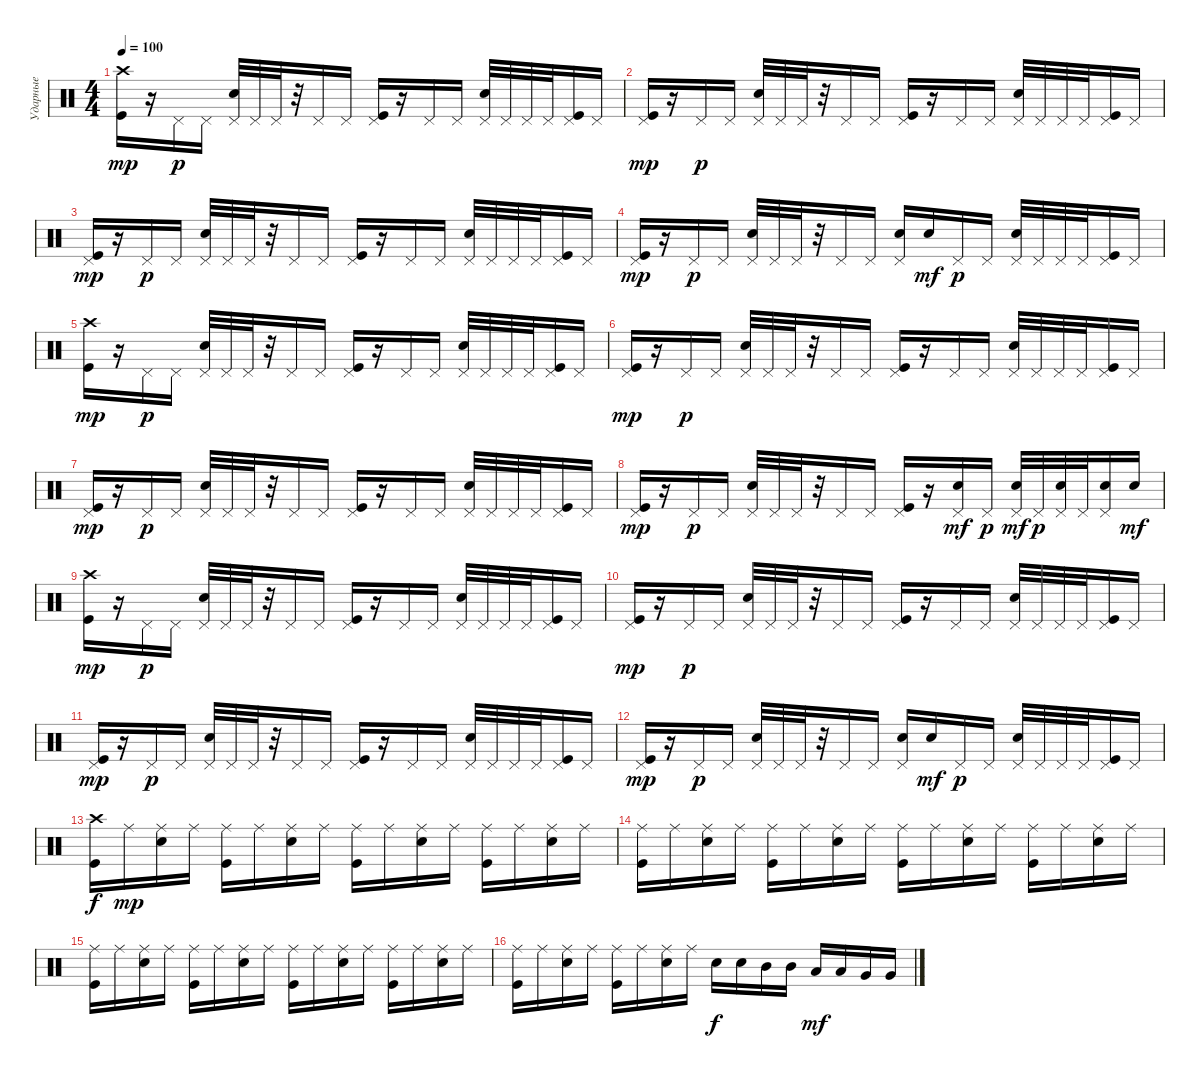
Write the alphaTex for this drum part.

\track ("Ударные" "Ударные") {instrument percussion}
\staff {score}
\articulation defaults
\ts (4 4)
\tempo 100
\clef neutral
\ks c
("Crash high (hit)" "Kick (hit)").16{dy mp} r.16 "Pedal Hi-Hat (hit)".16{dy p} "Pedal Hi-Hat (hit)".16 ("Pedal Hi-Hat (hit)" "Snare (hit) 2").32 "Pedal Hi-Hat (hit)".32 "Pedal Hi-Hat (hit)".32 r.32 "Pedal Hi-Hat (hit)".16 "Pedal Hi-Hat (hit)".16 ("Pedal Hi-Hat (hit)" "Kick (hit)").16 r.16 "Pedal Hi-Hat (hit)".16 "Pedal Hi-Hat (hit)".16 ("Pedal Hi-Hat (hit)" "Snare (hit) 2").32 "Pedal Hi-Hat (hit)".32 "Pedal Hi-Hat (hit)".32 "Pedal Hi-Hat (hit)".32 ("Pedal Hi-Hat (hit)" "Kick (hit)").16 "Pedal Hi-Hat (hit)".16 |
("Pedal Hi-Hat (hit)" "Kick (hit)").16{dy mp} r.16 "Pedal Hi-Hat (hit)".16{dy p} "Pedal Hi-Hat (hit)".16 ("Pedal Hi-Hat (hit)" "Snare (hit) 2").32 "Pedal Hi-Hat (hit)".32 "Pedal Hi-Hat (hit)".32 r.32 "Pedal Hi-Hat (hit)".16 "Pedal Hi-Hat (hit)".16 ("Pedal Hi-Hat (hit)" "Kick (hit)").16 r.16 "Pedal Hi-Hat (hit)".16 "Pedal Hi-Hat (hit)".16 ("Pedal Hi-Hat (hit)" "Snare (hit) 2").32 "Pedal Hi-Hat (hit)".32 "Pedal Hi-Hat (hit)".32 "Pedal Hi-Hat (hit)".32 ("Pedal Hi-Hat (hit)" "Kick (hit)").16 "Pedal Hi-Hat (hit)".16 |
("Pedal Hi-Hat (hit)" "Kick (hit)").16{dy mp} r.16 "Pedal Hi-Hat (hit)".16{dy p} "Pedal Hi-Hat (hit)".16 ("Pedal Hi-Hat (hit)" "Snare (hit) 2").32 "Pedal Hi-Hat (hit)".32 "Pedal Hi-Hat (hit)".32 r.32 "Pedal Hi-Hat (hit)".16 "Pedal Hi-Hat (hit)".16 ("Pedal Hi-Hat (hit)" "Kick (hit)").16 r.16 "Pedal Hi-Hat (hit)".16 "Pedal Hi-Hat (hit)".16 ("Pedal Hi-Hat (hit)" "Snare (hit) 2").32 "Pedal Hi-Hat (hit)".32 "Pedal Hi-Hat (hit)".32 "Pedal Hi-Hat (hit)".32 ("Pedal Hi-Hat (hit)" "Kick (hit)").16 "Pedal Hi-Hat (hit)".16 |
("Pedal Hi-Hat (hit)" "Kick (hit)").16{dy mp} r.16 "Pedal Hi-Hat (hit)".16{dy p} "Pedal Hi-Hat (hit)".16 ("Pedal Hi-Hat (hit)" "Snare (hit) 2").32 "Pedal Hi-Hat (hit)".32 "Pedal Hi-Hat (hit)".32 r.32 "Pedal Hi-Hat (hit)".16 "Pedal Hi-Hat (hit)".16 ("Pedal Hi-Hat (hit)" "Snare (hit) 2").16 "Snare (hit) 2".16{dy mf} "Pedal Hi-Hat (hit)".16{dy p} "Pedal Hi-Hat (hit)".16 ("Pedal Hi-Hat (hit)" "Snare (hit) 2").32 "Pedal Hi-Hat (hit)".32 "Pedal Hi-Hat (hit)".32 "Pedal Hi-Hat (hit)".32 ("Pedal Hi-Hat (hit)" "Kick (hit)").16 "Pedal Hi-Hat (hit)".16 |
("Crash high (hit)" "Kick (hit)").16{dy mp} r.16 "Pedal Hi-Hat (hit)".16{dy p} "Pedal Hi-Hat (hit)".16 ("Pedal Hi-Hat (hit)" "Snare (hit) 2").32 "Pedal Hi-Hat (hit)".32 "Pedal Hi-Hat (hit)".32 r.32 "Pedal Hi-Hat (hit)".16 "Pedal Hi-Hat (hit)".16 ("Pedal Hi-Hat (hit)" "Kick (hit)").16 r.16 "Pedal Hi-Hat (hit)".16 "Pedal Hi-Hat (hit)".16 ("Pedal Hi-Hat (hit)" "Snare (hit) 2").32 "Pedal Hi-Hat (hit)".32 "Pedal Hi-Hat (hit)".32 "Pedal Hi-Hat (hit)".32 ("Pedal Hi-Hat (hit)" "Kick (hit)").16 "Pedal Hi-Hat (hit)".16 |
("Pedal Hi-Hat (hit)" "Kick (hit)").16{dy mp} r.16 "Pedal Hi-Hat (hit)".16{dy p} "Pedal Hi-Hat (hit)".16 ("Pedal Hi-Hat (hit)" "Snare (hit) 2").32 "Pedal Hi-Hat (hit)".32 "Pedal Hi-Hat (hit)".32 r.32 "Pedal Hi-Hat (hit)".16 "Pedal Hi-Hat (hit)".16 ("Pedal Hi-Hat (hit)" "Kick (hit)").16 r.16 "Pedal Hi-Hat (hit)".16 "Pedal Hi-Hat (hit)".16 ("Pedal Hi-Hat (hit)" "Snare (hit) 2").32 "Pedal Hi-Hat (hit)".32 "Pedal Hi-Hat (hit)".32 "Pedal Hi-Hat (hit)".32 ("Pedal Hi-Hat (hit)" "Kick (hit)").16 "Pedal Hi-Hat (hit)".16 |
("Pedal Hi-Hat (hit)" "Kick (hit)").16{dy mp} r.16 "Pedal Hi-Hat (hit)".16{dy p} "Pedal Hi-Hat (hit)".16 ("Pedal Hi-Hat (hit)" "Snare (hit) 2").32 "Pedal Hi-Hat (hit)".32 "Pedal Hi-Hat (hit)".32 r.32 "Pedal Hi-Hat (hit)".16 "Pedal Hi-Hat (hit)".16 ("Pedal Hi-Hat (hit)" "Kick (hit)").16 r.16 "Pedal Hi-Hat (hit)".16 "Pedal Hi-Hat (hit)".16 ("Pedal Hi-Hat (hit)" "Snare (hit) 2").32 "Pedal Hi-Hat (hit)".32 "Pedal Hi-Hat (hit)".32 "Pedal Hi-Hat (hit)".32 ("Pedal Hi-Hat (hit)" "Kick (hit)").16 "Pedal Hi-Hat (hit)".16 |
("Pedal Hi-Hat (hit)" "Kick (hit)").16{dy mp} r.16 "Pedal Hi-Hat (hit)".16{dy p} "Pedal Hi-Hat (hit)".16 ("Pedal Hi-Hat (hit)" "Snare (hit) 2").32 "Pedal Hi-Hat (hit)".32 "Pedal Hi-Hat (hit)".32 r.32 "Pedal Hi-Hat (hit)".16 "Pedal Hi-Hat (hit)".16 ("Pedal Hi-Hat (hit)" "Kick (hit)").16 r.16 ("Pedal Hi-Hat (hit)" "Snare (hit) 2").16{dy mf} "Pedal Hi-Hat (hit)".16{dy p} ("Pedal Hi-Hat (hit)" "Snare (hit) 2").32{dy mf} "Pedal Hi-Hat (hit)".32{dy p} ("Pedal Hi-Hat (hit)" "Snare (hit) 2").32 "Pedal Hi-Hat (hit)".32 ("Pedal Hi-Hat (hit)" "Snare (hit) 2").16 "Snare (hit) 2".16{dy mf} |
("Crash high (hit)" "Kick (hit)").16{dy mp} r.16 "Pedal Hi-Hat (hit)".16{dy p} "Pedal Hi-Hat (hit)".16 ("Pedal Hi-Hat (hit)" "Snare (hit) 2").32 "Pedal Hi-Hat (hit)".32 "Pedal Hi-Hat (hit)".32 r.32 "Pedal Hi-Hat (hit)".16 "Pedal Hi-Hat (hit)".16 ("Pedal Hi-Hat (hit)" "Kick (hit)").16 r.16 "Pedal Hi-Hat (hit)".16 "Pedal Hi-Hat (hit)".16 ("Pedal Hi-Hat (hit)" "Snare (hit) 2").32 "Pedal Hi-Hat (hit)".32 "Pedal Hi-Hat (hit)".32 "Pedal Hi-Hat (hit)".32 ("Pedal Hi-Hat (hit)" "Kick (hit)").16 "Pedal Hi-Hat (hit)".16 |
("Pedal Hi-Hat (hit)" "Kick (hit)").16{dy mp} r.16 "Pedal Hi-Hat (hit)".16{dy p} "Pedal Hi-Hat (hit)".16 ("Pedal Hi-Hat (hit)" "Snare (hit) 2").32 "Pedal Hi-Hat (hit)".32 "Pedal Hi-Hat (hit)".32 r.32 "Pedal Hi-Hat (hit)".16 "Pedal Hi-Hat (hit)".16 ("Pedal Hi-Hat (hit)" "Kick (hit)").16 r.16 "Pedal Hi-Hat (hit)".16 "Pedal Hi-Hat (hit)".16 ("Pedal Hi-Hat (hit)" "Snare (hit) 2").32 "Pedal Hi-Hat (hit)".32 "Pedal Hi-Hat (hit)".32 "Pedal Hi-Hat (hit)".32 ("Pedal Hi-Hat (hit)" "Kick (hit)").16 "Pedal Hi-Hat (hit)".16 |
("Pedal Hi-Hat (hit)" "Kick (hit)").16{dy mp} r.16 "Pedal Hi-Hat (hit)".16{dy p} "Pedal Hi-Hat (hit)".16 ("Pedal Hi-Hat (hit)" "Snare (hit) 2").32 "Pedal Hi-Hat (hit)".32 "Pedal Hi-Hat (hit)".32 r.32 "Pedal Hi-Hat (hit)".16 "Pedal Hi-Hat (hit)".16 ("Pedal Hi-Hat (hit)" "Kick (hit)").16 r.16 "Pedal Hi-Hat (hit)".16 "Pedal Hi-Hat (hit)".16 ("Pedal Hi-Hat (hit)" "Snare (hit) 2").32 "Pedal Hi-Hat (hit)".32 "Pedal Hi-Hat (hit)".32 "Pedal Hi-Hat (hit)".32 ("Pedal Hi-Hat (hit)" "Kick (hit)").16 "Pedal Hi-Hat (hit)".16 |
("Pedal Hi-Hat (hit)" "Kick (hit)").16{dy mp} r.16 "Pedal Hi-Hat (hit)".16{dy p} "Pedal Hi-Hat (hit)".16 ("Pedal Hi-Hat (hit)" "Snare (hit) 2").32 "Pedal Hi-Hat (hit)".32 "Pedal Hi-Hat (hit)".32 r.32 "Pedal Hi-Hat (hit)".16 "Pedal Hi-Hat (hit)".16 ("Pedal Hi-Hat (hit)" "Snare (hit) 2").16 "Snare (hit) 2".16{dy mf} "Pedal Hi-Hat (hit)".16{dy p} "Pedal Hi-Hat (hit)".16 ("Pedal Hi-Hat (hit)" "Snare (hit) 2").32 "Pedal Hi-Hat (hit)".32 "Pedal Hi-Hat (hit)".32 "Pedal Hi-Hat (hit)".32 ("Pedal Hi-Hat (hit)" "Kick (hit)").16 "Pedal Hi-Hat (hit)".16 |
("Crash high (hit)" "Kick (hit)").16{dy f} "Ride (middle)".16{dy mp} ("Ride (middle)" "Snare (hit) 2").16 "Ride (middle)".16 ("Ride (middle)" "Kick (hit)").16 "Ride (middle)".16 ("Ride (middle)" "Snare (hit) 2").16 "Ride (middle)".16 ("Ride (middle)" "Kick (hit)").16 "Ride (middle)".16 ("Ride (middle)" "Snare (hit) 2").16 "Ride (middle)".16 ("Ride (middle)" "Kick (hit)").16 "Ride (middle)".16 ("Ride (middle)" "Snare (hit) 2").16 "Ride (middle)".16 |
("Ride (middle)" "Kick (hit)").16 "Ride (middle)".16 ("Ride (middle)" "Snare (hit) 2").16 "Ride (middle)".16 ("Ride (middle)" "Kick (hit)").16 "Ride (middle)".16 ("Ride (middle)" "Snare (hit) 2").16 "Ride (middle)".16 ("Ride (middle)" "Kick (hit)").16 "Ride (middle)".16 ("Ride (middle)" "Snare (hit) 2").16 "Ride (middle)".16 ("Ride (middle)" "Kick (hit)").16 "Ride (middle)".16 ("Ride (middle)" "Snare (hit) 2").16 "Ride (middle)".16 |
("Ride (middle)" "Kick (hit)").16 "Ride (middle)".16 ("Ride (middle)" "Snare (hit) 2").16 "Ride (middle)".16 ("Ride (middle)" "Kick (hit)").16 "Ride (middle)".16 ("Ride (middle)" "Snare (hit) 2").16 "Ride (middle)".16 ("Ride (middle)" "Kick (hit)").16 "Ride (middle)".16 ("Ride (middle)" "Snare (hit) 2").16 "Ride (middle)".16 ("Ride (middle)" "Kick (hit)").16 "Ride (middle)".16 ("Ride (middle)" "Snare (hit) 2").16 "Ride (middle)".16 |
("Ride (middle)" "Kick (hit)").16 "Ride (middle)".16 ("Ride (middle)" "Snare (hit) 2").16 "Ride (middle)".16 ("Ride (middle)" "Kick (hit)").16 "Ride (middle)".16 ("Ride (middle)" "Snare (hit) 2").16 "Ride (middle)".16 "Snare (hit) 2".16{dy f} "Snare (hit) 2".16 "Mid Tom (hit)".16 "Mid Tom (hit)".16 "Low Tom (hit)".16{dy mf} "Low Tom (hit)".16 "Very Low Tom (hit)".16 "Very Low Tom (hit)".16
